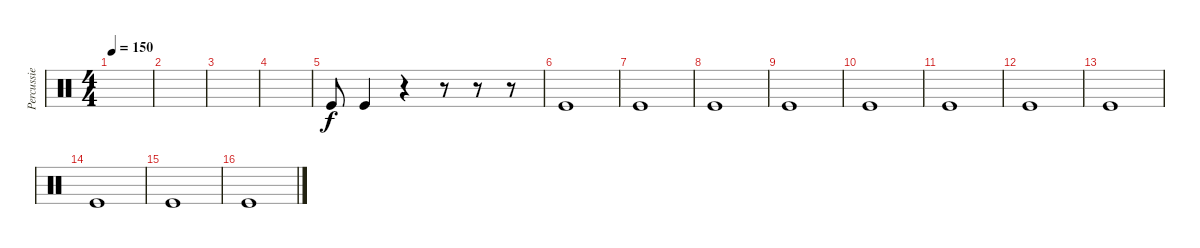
\track ("Percussie" "Percussie") {instrument percussion}
\staff {score}
\articulation defaults
\ts (4 4)
\tempo 150
\clef neutral
\ks c
|
|
|
|
"Kick (hit)".8 "Kick (hit)".4 r.4 r.8 r.8 r.8 |
"Kick (hit)".1 |
"Kick (hit)".1 |
"Kick (hit)".1 |
"Kick (hit)".1 |
"Kick (hit)".1 |
"Kick (hit)".1 |
"Kick (hit)".1 |
"Kick (hit)".1 |
"Kick (hit)".1 |
"Kick (hit)".1 |
"Kick (hit)".1
